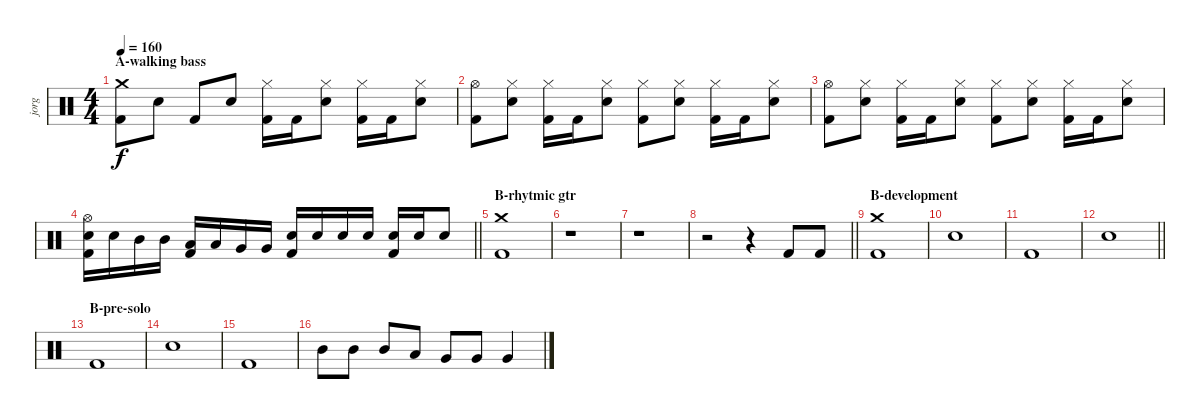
\track ("jorg" "jorg") {instrument percussion}
\staff {score}
\articulation defaults
\ts (4 4)
\section ("" "A-walking bass")
\tempo 160
\clef neutral
\ks c
("Crash medium (hit)" "Kick (hit) 2").8{dy f} "Electric Snare (hit)".8 "Kick (hit) 2".8 "Electric Snare (hit)".8 ("Hi-Hat (closed)" "Kick (hit) 2").16 "Kick (hit) 2".16 ("Hi-Hat (closed)" "Electric Snare (hit)").8 ("Hi-Hat (closed)" "Kick (hit) 2").16 "Kick (hit) 2".16 ("Hi-Hat (closed)" "Electric Snare (hit)").8 |
("Hi-Hat (open)" "Kick (hit) 2").8 ("Hi-Hat (closed)" "Electric Snare (hit)").8 ("Hi-Hat (closed)" "Kick (hit) 2").16 "Kick (hit) 2".16 ("Hi-Hat (closed)" "Electric Snare (hit)").8 ("Hi-Hat (closed)" "Kick (hit) 2").8 ("Hi-Hat (closed)" "Electric Snare (hit)").8 ("Hi-Hat (closed)" "Kick (hit) 2").16 "Kick (hit) 2".16 ("Hi-Hat (closed)" "Electric Snare (hit)").8 |
("Hi-Hat (open)" "Kick (hit) 2").8 ("Hi-Hat (closed)" "Electric Snare (hit)").8 ("Hi-Hat (closed)" "Kick (hit) 2").16 "Kick (hit) 2".16 ("Hi-Hat (closed)" "Electric Snare (hit)").8 ("Hi-Hat (closed)" "Kick (hit) 2").8 ("Hi-Hat (closed)" "Electric Snare (hit)").8 ("Hi-Hat (closed)" "Kick (hit) 2").16 "Kick (hit) 2".16 ("Hi-Hat (closed)" "Electric Snare (hit)").8 |
\barLineRight lightlight
("Hi-Hat (open)" "Electric Snare (hit)" "Kick (hit) 2").16 "Electric Snare (hit)".16 "Mid Tom (hit)".16 "Mid Tom (hit)".16 ("Low Tom (hit)" "Kick (hit) 2").16 "Low Tom (hit)".16 "Very Low Tom (hit)".16 "Very Low Tom (hit)".16 ("Electric Snare (hit)" "Kick (hit) 2").16 "Electric Snare (hit)".16 "Electric Snare (hit)".16 "Electric Snare (hit)".16 ("Electric Snare (hit)" "Kick (hit) 2").16 "Electric Snare (hit)".16 "Electric Snare (hit)".8 |
\section ("" "B-rhytmic gtr")
("Crash medium (hit)" "Kick (hit) 2").1 |
r.1 |
r.1 |
\barLineRight lightlight
r.2 r.4 "Kick (hit) 2".8 "Kick (hit) 2".8 |
\section ("" "B-development")
("Crash medium (hit)" "Kick (hit) 2").1 |
"Electric Snare (hit)".1 |
"Kick (hit) 2".1 |
\barLineRight lightlight "Electric Snare (hit)".1
|
\section ("" "B-pre-solo")
"Kick (hit) 2".1 |
"Electric Snare (hit)".1 |
"Kick (hit) 2".1 |
"Mid Tom (hit)".8 "Mid Tom (hit)".8 "Mid Tom (hit)".8 "Low Tom (hit)".8 "Very Low Tom (hit)".8 "Very Low Tom (hit)".8 "Very Low Tom (hit)".4
